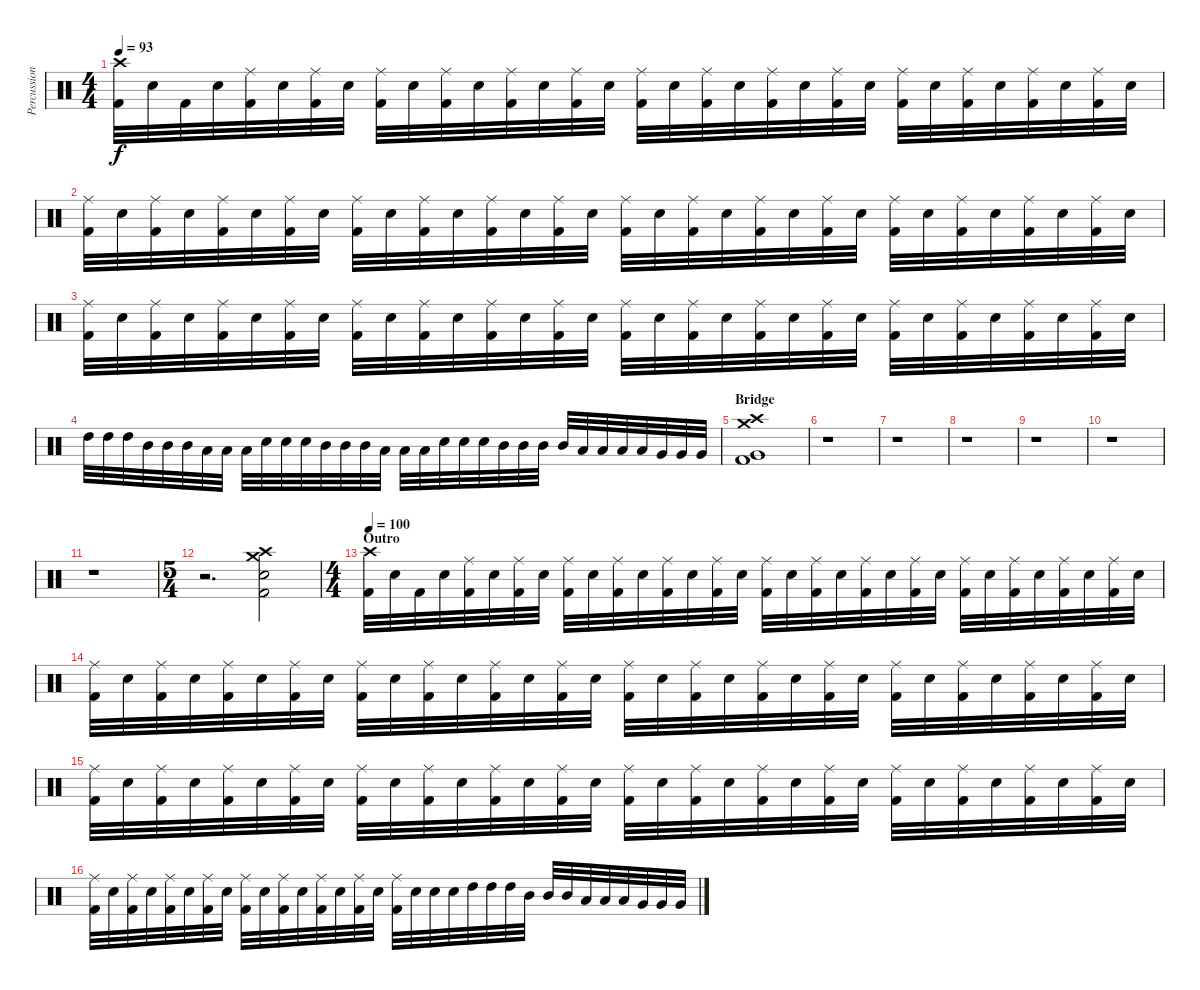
\track ("Percussion" "Percussion") {instrument percussion}
\staff {score}
\articulation defaults
\ts (4 4)
\tempo 93
\clef neutral
\ks c
("Crash high (hit)" "Kick (hit) 2").32{dy f} "Snare (hit) 2".32 "Kick (hit) 2".32 "Snare (hit) 2".32 ("Ride (middle)" "Kick (hit) 2").32 "Snare (hit) 2".32 ("Ride (middle)" "Kick (hit) 2").32 "Snare (hit) 2".32 ("Ride (middle)" "Kick (hit) 2").32 "Snare (hit) 2".32 ("Ride (middle)" "Kick (hit) 2").32 "Snare (hit) 2".32 ("Ride (middle)" "Kick (hit) 2").32 "Snare (hit) 2".32 ("Ride (middle)" "Kick (hit) 2").32 "Snare (hit) 2".32 ("Ride (middle)" "Kick (hit) 2").32 "Snare (hit) 2".32 ("Ride (middle)" "Kick (hit) 2").32 "Snare (hit) 2".32 ("Ride (middle)" "Kick (hit) 2").32 "Snare (hit) 2".32 ("Ride (middle)" "Kick (hit) 2").32 "Snare (hit) 2".32 ("Ride (middle)" "Kick (hit) 2").32 "Snare (hit) 2".32 ("Ride (middle)" "Kick (hit) 2").32 "Snare (hit) 2".32 ("Ride (middle)" "Kick (hit) 2").32 "Snare (hit) 2".32 ("Ride (middle)" "Kick (hit) 2").32 "Snare (hit) 2".32 |
("Ride (middle)" "Kick (hit) 2").32 "Snare (hit) 2".32 ("Ride (middle)" "Kick (hit) 2").32 "Snare (hit) 2".32 ("Ride (middle)" "Kick (hit) 2").32 "Snare (hit) 2".32 ("Ride (middle)" "Kick (hit) 2").32 "Snare (hit) 2".32 ("Ride (middle)" "Kick (hit) 2").32 "Snare (hit) 2".32 ("Ride (middle)" "Kick (hit) 2").32 "Snare (hit) 2".32 ("Ride (middle)" "Kick (hit) 2").32 "Snare (hit) 2".32 ("Ride (middle)" "Kick (hit) 2").32 "Snare (hit) 2".32 ("Ride (middle)" "Kick (hit) 2").32 "Snare (hit) 2".32 ("Ride (middle)" "Kick (hit) 2").32 "Snare (hit) 2".32 ("Ride (middle)" "Kick (hit) 2").32 "Snare (hit) 2".32 ("Ride (middle)" "Kick (hit) 2").32 "Snare (hit) 2".32 ("Ride (middle)" "Kick (hit) 2").32 "Snare (hit) 2".32 ("Ride (middle)" "Kick (hit) 2").32 "Snare (hit) 2".32 ("Ride (middle)" "Kick (hit) 2").32 "Snare (hit) 2".32 ("Ride (middle)" "Kick (hit) 2").32 "Snare (hit) 2".32 |
("Ride (middle)" "Kick (hit) 2").32 "Snare (hit) 2".32 ("Ride (middle)" "Kick (hit) 2").32 "Snare (hit) 2".32 ("Ride (middle)" "Kick (hit) 2").32 "Snare (hit) 2".32 ("Ride (middle)" "Kick (hit) 2").32 "Snare (hit) 2".32 ("Ride (middle)" "Kick (hit) 2").32 "Snare (hit) 2".32 ("Ride (middle)" "Kick (hit) 2").32 "Snare (hit) 2".32 ("Ride (middle)" "Kick (hit) 2").32 "Snare (hit) 2".32 ("Ride (middle)" "Kick (hit) 2").32 "Snare (hit) 2".32 ("Ride (middle)" "Kick (hit) 2").32 "Snare (hit) 2".32 ("Ride (middle)" "Kick (hit) 2").32 "Snare (hit) 2".32 ("Ride (middle)" "Kick (hit) 2").32 "Snare (hit) 2".32 ("Ride (middle)" "Kick (hit) 2").32 "Snare (hit) 2".32 ("Ride (middle)" "Kick (hit) 2").32 "Snare (hit) 2".32 ("Ride (middle)" "Kick (hit) 2").32 "Snare (hit) 2".32 ("Ride (middle)" "Kick (hit) 2").32 "Snare (hit) 2".32 ("Ride (middle)" "Kick (hit) 2").32 "Snare (hit) 2".32 |
"High Tom (hit)".32 "High Tom (hit)".32 "High Tom (hit)".32 "Mid Tom (hit)".32 "Mid Tom (hit)".32 "Mid Tom (hit)".32 "Low Tom (hit)".32 "Low Tom (hit)".32 "Low Tom (hit)".32 "Snare (hit) 2".32 "Snare (hit) 2".32 "Snare (hit) 2".32 "Mid Tom (hit)".32 "Mid Tom (hit)".32 "Mid Tom (hit)".32 "Low Tom (hit)".32 "Low Tom (hit)".32 "Low Tom (hit)".32 "Snare (hit) 2".32 "Snare (hit) 2".32 "Snare (hit) 2".32 "Mid Tom (hit)".32 "Mid Tom (hit)".32 "Mid Tom (hit)".32 "Mid Tom (hit)".32 "Low Tom (hit)".32 "Low Tom (hit)".32 "Low Tom (hit)".32 "Low Tom (hit)".32 "Very Low Tom (hit)".32 "Very Low Tom (hit)".32 "Very Low Tom (hit)".32 |
\section ("" "Bridge")
("Crash high (hit)" "Crash medium (hit)" "Very Low Tom (hit)" "Kick (hit) 2").1 |
r.1 |
r.1 |
r.1 |
r.1 |
r.1 |
r.1 |
\ts (5 4)
r.2{d} ("Crash high (hit)" "Crash medium (hit)" "Snare (hit) 2" "Kick (hit) 2").2 |
\ts (4 4)
\section ("" "Outro")
\tempo 100
("Crash high (hit)" "Kick (hit) 2").32 "Snare (hit) 2".32 "Kick (hit) 2".32 "Snare (hit) 2".32 ("Ride (middle)" "Kick (hit) 2").32 "Snare (hit) 2".32 ("Ride (middle)" "Kick (hit) 2").32 "Snare (hit) 2".32 ("Ride (middle)" "Kick (hit) 2").32 "Snare (hit) 2".32 ("Ride (middle)" "Kick (hit) 2").32 "Snare (hit) 2".32 ("Ride (middle)" "Kick (hit) 2").32 "Snare (hit) 2".32 ("Ride (middle)" "Kick (hit) 2").32 "Snare (hit) 2".32 ("Ride (middle)" "Kick (hit) 2").32 "Snare (hit) 2".32 ("Ride (middle)" "Kick (hit) 2").32 "Snare (hit) 2".32 ("Ride (middle)" "Kick (hit) 2").32 "Snare (hit) 2".32 ("Ride (middle)" "Kick (hit) 2").32 "Snare (hit) 2".32 ("Ride (middle)" "Kick (hit) 2").32 "Snare (hit) 2".32 ("Ride (middle)" "Kick (hit) 2").32 "Snare (hit) 2".32 ("Ride (middle)" "Kick (hit) 2").32 "Snare (hit) 2".32 ("Ride (middle)" "Kick (hit) 2").32 "Snare (hit) 2".32 |
("Ride (middle)" "Kick (hit) 2").32 "Snare (hit) 2".32 ("Ride (middle)" "Kick (hit) 2").32 "Snare (hit) 2".32 ("Ride (middle)" "Kick (hit) 2").32 "Snare (hit) 2".32 ("Ride (middle)" "Kick (hit) 2").32 "Snare (hit) 2".32 ("Ride (middle)" "Kick (hit) 2").32 "Snare (hit) 2".32 ("Ride (middle)" "Kick (hit) 2").32 "Snare (hit) 2".32 ("Ride (middle)" "Kick (hit) 2").32 "Snare (hit) 2".32 ("Ride (middle)" "Kick (hit) 2").32 "Snare (hit) 2".32 ("Ride (middle)" "Kick (hit) 2").32 "Snare (hit) 2".32 ("Ride (middle)" "Kick (hit) 2").32 "Snare (hit) 2".32 ("Ride (middle)" "Kick (hit) 2").32 "Snare (hit) 2".32 ("Ride (middle)" "Kick (hit) 2").32 "Snare (hit) 2".32 ("Ride (middle)" "Kick (hit) 2").32 "Snare (hit) 2".32 ("Ride (middle)" "Kick (hit) 2").32 "Snare (hit) 2".32 ("Ride (middle)" "Kick (hit) 2").32 "Snare (hit) 2".32 ("Ride (middle)" "Kick (hit) 2").32 "Snare (hit) 2".32 |
("Ride (middle)" "Kick (hit) 2").32 "Snare (hit) 2".32 ("Ride (middle)" "Kick (hit) 2").32 "Snare (hit) 2".32 ("Ride (middle)" "Kick (hit) 2").32 "Snare (hit) 2".32 ("Ride (middle)" "Kick (hit) 2").32 "Snare (hit) 2".32 ("Ride (middle)" "Kick (hit) 2").32 "Snare (hit) 2".32 ("Ride (middle)" "Kick (hit) 2").32 "Snare (hit) 2".32 ("Ride (middle)" "Kick (hit) 2").32 "Snare (hit) 2".32 ("Ride (middle)" "Kick (hit) 2").32 "Snare (hit) 2".32 ("Ride (middle)" "Kick (hit) 2").32 "Snare (hit) 2".32 ("Ride (middle)" "Kick (hit) 2").32 "Snare (hit) 2".32 ("Ride (middle)" "Kick (hit) 2").32 "Snare (hit) 2".32 ("Ride (middle)" "Kick (hit) 2").32 "Snare (hit) 2".32 ("Ride (middle)" "Kick (hit) 2").32 "Snare (hit) 2".32 ("Ride (middle)" "Kick (hit) 2").32 "Snare (hit) 2".32 ("Ride (middle)" "Kick (hit) 2").32 "Snare (hit) 2".32 ("Ride (middle)" "Kick (hit) 2").32 "Snare (hit) 2".32 |
("Ride (middle)" "Kick (hit) 2").32 "Snare (hit) 2".32 ("Ride (middle)" "Kick (hit) 2").32 "Snare (hit) 2".32 ("Ride (middle)" "Kick (hit) 2").32 "Snare (hit) 2".32 ("Ride (middle)" "Kick (hit) 2").32 "Snare (hit) 2".32 ("Ride (middle)" "Kick (hit) 2").32 "Snare (hit) 2".32 ("Ride (middle)" "Kick (hit) 2").32 "Snare (hit) 2".32 ("Ride (middle)" "Kick (hit) 2").32 "Snare (hit) 2".32 ("Ride (middle)" "Kick (hit) 2").32 "Snare (hit) 2".32 ("Ride (middle)" "Kick (hit) 2").32 "Snare (hit) 2".32 "Snare (hit) 2".32 "Snare (hit) 2".32 "High Tom (hit)".32 "High Tom (hit)".32 "High Tom (hit)".32 "Mid Tom (hit)".32 "Mid Tom (hit)".32 "Mid Tom (hit)".32 "Low Tom (hit)".32 "Low Tom (hit)".32 "Low Tom (hit)".32 "Very Low Tom (hit)".32 "Very Low Tom (hit)".32 "Very Low Tom (hit)".32
